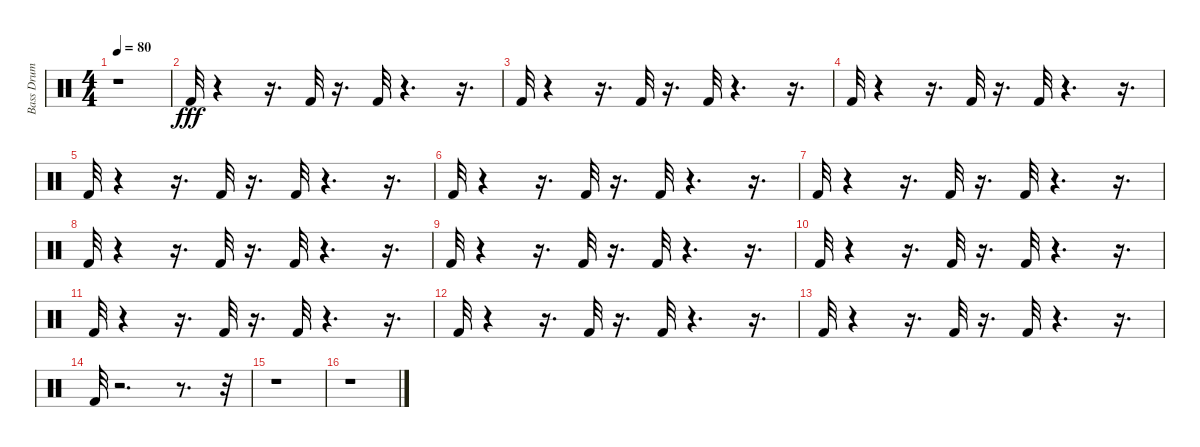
\track ("Bass Drum" "Bass Drum") {instrument percussion}
\staff {score}
\articulation defaults
\ts (4 4)
\tempo 80
\clef neutral
\ks c
r.1{dy fff} |
"Kick (hit) 2".32 r.4 r.16{d} "Kick (hit) 2".32 r.16{d} "Kick (hit) 2".32 r.4{d} r.16{d} |
"Kick (hit) 2".32 r.4 r.16{d} "Kick (hit) 2".32 r.16{d} "Kick (hit) 2".32 r.4{d} r.16{d} |
"Kick (hit) 2".32 r.4 r.16{d} "Kick (hit) 2".32 r.16{d} "Kick (hit) 2".32 r.4{d} r.16{d} |
"Kick (hit) 2".32 r.4 r.16{d} "Kick (hit) 2".32 r.16{d} "Kick (hit) 2".32 r.4{d} r.16{d} |
"Kick (hit) 2".32 r.4 r.16{d} "Kick (hit) 2".32 r.16{d} "Kick (hit) 2".32 r.4{d} r.16{d} |
"Kick (hit) 2".32 r.4 r.16{d} "Kick (hit) 2".32 r.16{d} "Kick (hit) 2".32 r.4{d} r.16{d} |
"Kick (hit) 2".32 r.4 r.16{d} "Kick (hit) 2".32 r.16{d} "Kick (hit) 2".32 r.4{d} r.16{d} |
"Kick (hit) 2".32 r.4 r.16{d} "Kick (hit) 2".32 r.16{d} "Kick (hit) 2".32 r.4{d} r.16{d} |
"Kick (hit) 2".32 r.4 r.16{d} "Kick (hit) 2".32 r.16{d} "Kick (hit) 2".32 r.4{d} r.16{d} |
"Kick (hit) 2".32 r.4 r.16{d} "Kick (hit) 2".32 r.16{d} "Kick (hit) 2".32 r.4{d} r.16{d} |
"Kick (hit) 2".32 r.4 r.16{d} "Kick (hit) 2".32 r.16{d} "Kick (hit) 2".32 r.4{d} r.16{d} |
"Kick (hit) 2".32 r.4 r.16{d} "Kick (hit) 2".32 r.16{d} "Kick (hit) 2".32 r.4{d} r.16{d} |
"Kick (hit) 2".32 r.2{d} r.8{d} r.32 |
r.1 |
r.1
